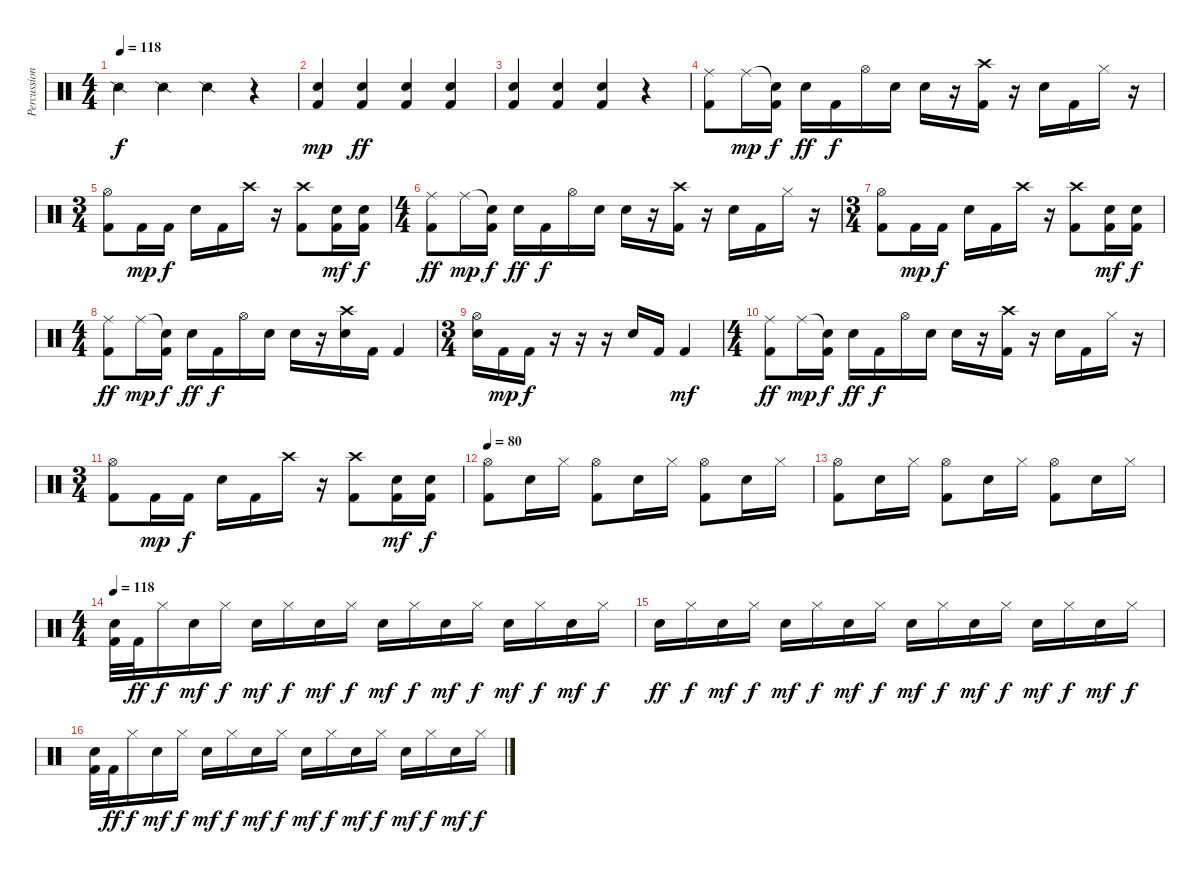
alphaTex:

\track ("Percussion" "Percussion") {instrument percussion}
\staff {score}
\articulation defaults
\ts (4 4)
\tempo 118
\clef neutral
\ks c "Snare (side stick) 2".4{dy f} "Snare (side stick) 2".4 "Snare (side stick) 2".4
r.4 |
("Snare (hit) 2" "Kick (hit) 2").4{dy mp} ("Snare (hit) 2" "Kick (hit) 2").4{dy ff} ("Snare (hit) 2" "Kick (hit) 2").4 ("Snare (hit) 2" "Kick (hit) 2").4 |
("Snare (hit) 2" "Kick (hit) 2").4 ("Snare (hit) 2" "Kick (hit) 2").4 ("Snare (hit) 2" "Kick (hit) 2").4 r.4 |
("Ride (middle)" "Kick (hit) 2").8 "Ride (middle)".16{dy mp} ("Snare (hit)"{t} "Kick (hit) 2").16{dy f} "Snare (hit) 2".16{dy ff} "Kick (hit) 2".16{dy f} "Hi-Hat (open)".16 "Snare (hit) 2".16 "Snare (hit) 2".16 r.16 ("Crash high (hit)" "Kick (hit) 2").16 r.16 "Snare (hit) 2".16 "Kick (hit) 2".16 "Hi-Hat (closed)".16 r.16 |
\ts (3 4)
("Hi-Hat (open)" "Kick (hit) 2").8 "Kick (hit) 2".16{dy mp} "Kick (hit) 2".16{dy f} "Snare (hit) 2".16 "Kick (hit) 2".16 "Crash high (hit)".16 r.16 ("Crash high (hit)" "Kick (hit) 2").8 ("Snare (hit) 2" "Kick (hit) 2").16{dy mf} ("Snare (hit) 2" "Kick (hit) 2").16{dy f} |
\ts (4 4)
("Ride (middle)" "Kick (hit) 2").8{dy ff} "Ride (middle)".16{dy mp} ("Snare (hit)"{t} "Kick (hit) 2").16{dy f} "Snare (hit) 2".16{dy ff} "Kick (hit) 2".16{dy f} "Hi-Hat (open)".16 "Snare (hit) 2".16 "Snare (hit) 2".16 r.16 ("Crash high (hit)" "Kick (hit) 2").16 r.16 "Snare (hit) 2".16 "Kick (hit) 2".16 "Hi-Hat (closed)".16 r.16 |
\ts (3 4)
("Hi-Hat (open)" "Kick (hit) 2").8 "Kick (hit) 2".16{dy mp} "Kick (hit) 2".16{dy f} "Snare (hit) 2".16 "Kick (hit) 2".16 "Crash high (hit)".16 r.16 ("Crash high (hit)" "Kick (hit) 2").8 ("Snare (hit) 2" "Kick (hit) 2").16{dy mf} ("Snare (hit) 2" "Kick (hit) 2").16{dy f} |
\ts (4 4)
("Ride (middle)" "Kick (hit) 2").8{dy ff} "Ride (middle)".16{dy mp} ("Snare (hit)"{t} "Kick (hit) 2").16{dy f} "Snare (hit) 2".16{dy ff} "Kick (hit) 2".16{dy f} "Hi-Hat (open)".16 "Snare (hit) 2".16 "Snare (hit) 2".16 r.16 ("Crash high (hit)" "Snare (hit) 2").16 "Kick (hit) 2".16 "Kick (hit) 2".4 |
\ts (3 4)
("Hi-Hat (open)" "Snare (hit) 2").16 "Kick (hit) 2".16{dy mp} "Kick (hit) 2".16{dy f} r.16 r.16 r.16 "Snare (hit) 2".16 "Kick (hit) 2".16 "Kick (hit) 2".4{dy mf} |
\ts (4 4)
("Ride (middle)" "Kick (hit) 2").8{dy ff} "Ride (middle)".16{dy mp} ("Snare (hit)"{t} "Kick (hit) 2").16{dy f} "Snare (hit) 2".16{dy ff} "Kick (hit) 2".16{dy f} "Hi-Hat (open)".16 "Snare (hit) 2".16 "Snare (hit) 2".16 r.16 ("Crash high (hit)" "Kick (hit) 2").16 r.16 "Snare (hit) 2".16 "Kick (hit) 2".16 "Hi-Hat (closed)".16 r.16 |
\ts (3 4)
("Hi-Hat (open)" "Kick (hit) 2").8 "Kick (hit) 2".16{dy mp} "Kick (hit) 2".16{dy f} "Snare (hit) 2".16 "Kick (hit) 2".16 "Crash high (hit)".16 r.16 ("Crash high (hit)" "Kick (hit) 2").8 ("Snare (hit) 2" "Kick (hit) 2").16{dy mf} ("Snare (hit) 2" "Kick (hit) 2").16{dy f} |
\tempo 80
("Hi-Hat (open)" "Kick (hit) 2").8 "Snare (hit) 2".16 "Hi-Hat (closed)".16 ("Hi-Hat (open)" "Kick (hit) 2").8 "Snare (hit) 2".16 "Hi-Hat (closed)".16 ("Hi-Hat (open)" "Kick (hit) 2").8 "Snare (hit) 2".16 "Hi-Hat (closed)".16 |
("Hi-Hat (open)" "Kick (hit) 2").8 "Snare (hit) 2".16 "Hi-Hat (closed)".16 ("Hi-Hat (open)" "Kick (hit) 2").8 "Snare (hit) 2".16 "Hi-Hat (closed)".16 ("Hi-Hat (open)" "Kick (hit) 2").8 "Snare (hit) 2".16 "Hi-Hat (closed)".16 |
\ts (4 4)
\tempo 116
\tempo 118
("Snare (hit) 2" "Kick (hit) 2").32 "Kick (hit) 2".32{dy ff} "Hi-Hat (closed)".16{dy f} "Snare (hit) 2".16{dy mf} "Hi-Hat (closed)".16{dy f} "Snare (hit) 2".16{dy mf} "Hi-Hat (closed)".16{dy f} "Snare (hit) 2".16{dy mf} "Hi-Hat (closed)".16{dy f} "Snare (hit) 2".16{dy mf} "Hi-Hat (closed)".16{dy f} "Snare (hit) 2".16{dy mf} "Hi-Hat (closed)".16{dy f} "Snare (hit) 2".16{dy mf} "Hi-Hat (closed)".16{dy f} "Snare (hit) 2".16{dy mf} "Hi-Hat (closed)".16{dy f} |
"Snare (hit) 2".16{dy ff} "Hi-Hat (closed)".16{dy f} "Snare (hit) 2".16{dy mf} "Hi-Hat (closed)".16{dy f} "Snare (hit) 2".16{dy mf} "Hi-Hat (closed)".16{dy f} "Snare (hit) 2".16{dy mf} "Hi-Hat (closed)".16{dy f} "Snare (hit) 2".16{dy mf} "Hi-Hat (closed)".16{dy f} "Snare (hit) 2".16{dy mf} "Hi-Hat (closed)".16{dy f} "Snare (hit) 2".16{dy mf} "Hi-Hat (closed)".16{dy f} "Snare (hit) 2".16{dy mf} "Hi-Hat (closed)".16{dy f} |
("Snare (hit) 2" "Kick (hit) 2").32 "Kick (hit) 2".32{dy ff} "Hi-Hat (closed)".16{dy f} "Snare (hit) 2".16{dy mf} "Hi-Hat (closed)".16{dy f} "Snare (hit) 2".16{dy mf} "Hi-Hat (closed)".16{dy f} "Snare (hit) 2".16{dy mf} "Hi-Hat (closed)".16{dy f} "Snare (hit) 2".16{dy mf} "Hi-Hat (closed)".16{dy f} "Snare (hit) 2".16{dy mf} "Hi-Hat (closed)".16{dy f} "Snare (hit) 2".16{dy mf} "Hi-Hat (closed)".16{dy f} "Snare (hit) 2".16{dy mf} "Hi-Hat (closed)".16{dy f}
